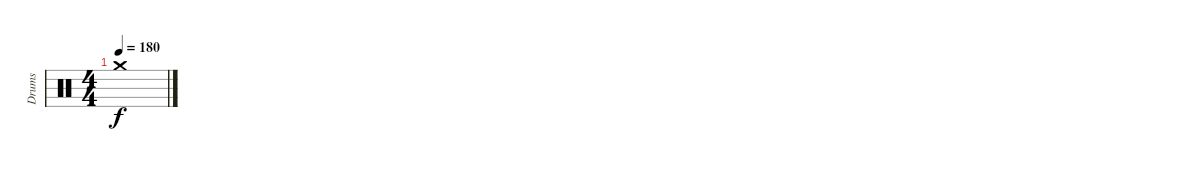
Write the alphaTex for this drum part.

\track ("Drums" "Drums") {instrument percussion}
\staff {score}
\articulation defaults
\ts (4 4)
\tempo 180
\clef neutral
\ks c "Crash medium (hit)".1{dy f}
